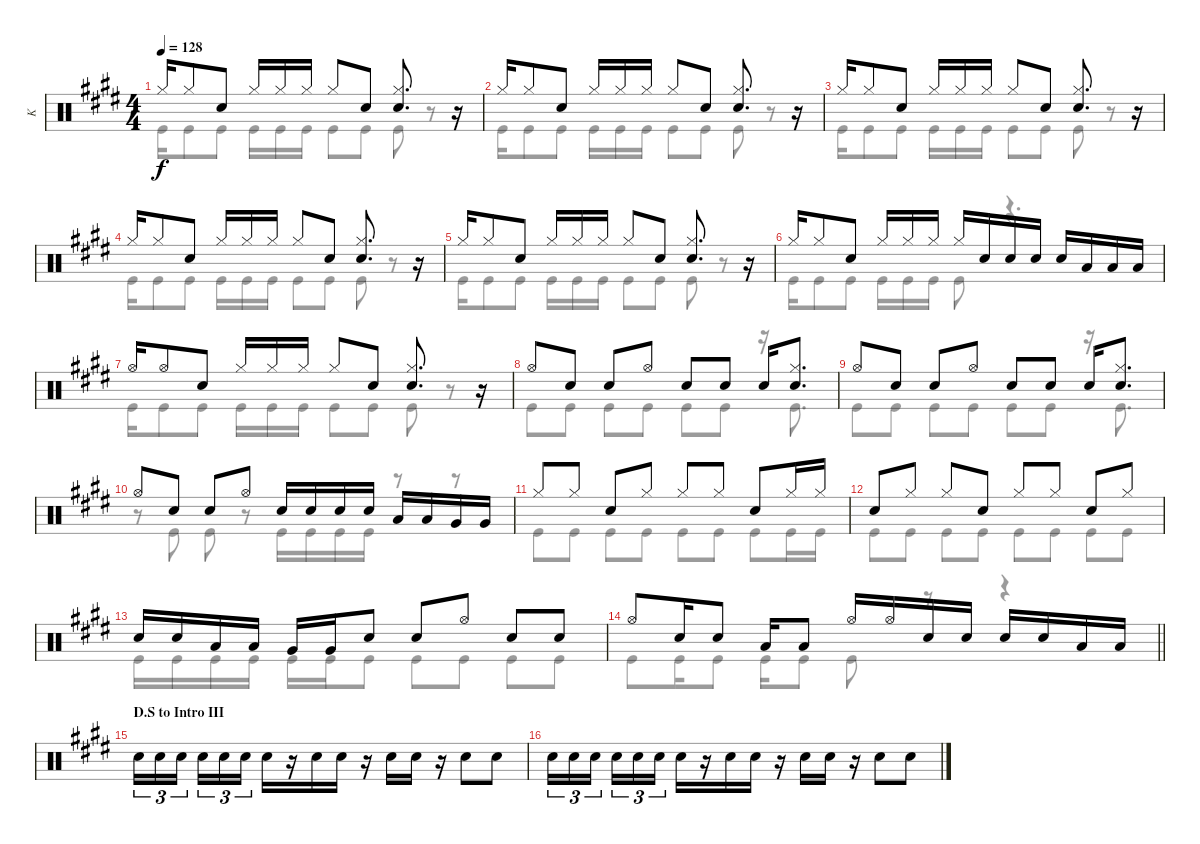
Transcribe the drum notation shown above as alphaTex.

\track ("K" "K") {instrument percussion}
\staff {score}
\articulation defaults
\voice
\ts (4 4)
\tempo 128
\clef neutral
\ks e "Hi-Hat (closed)".16{dy f} "Hi-Hat (closed)".8 "Snare (hit) 2".8 "Hi-Hat (closed)".16 "Hi-Hat (closed)".16 "Hi-Hat (closed)".16 "Hi-Hat (closed)".8 "Snare (hit) 2".8
("Hi-Hat (closed)" "Snare (hit) 2").8{d} r.16 |
"Hi-Hat (closed)".16 "Hi-Hat (closed)".8 "Snare (hit) 2".8 "Hi-Hat (closed)".16 "Hi-Hat (closed)".16 "Hi-Hat (closed)".16 "Hi-Hat (closed)".8 "Snare (hit) 2".8 ("Hi-Hat (closed)" "Snare (hit) 2").8{d} r.16 |
"Hi-Hat (closed)".16 "Hi-Hat (closed)".8 "Snare (hit) 2".8 "Hi-Hat (closed)".16 "Hi-Hat (closed)".16 "Hi-Hat (closed)".16 "Hi-Hat (closed)".8 "Snare (hit) 2".8 ("Hi-Hat (closed)" "Snare (hit) 2").8{d} r.16 |
"Hi-Hat (closed)".16 "Hi-Hat (closed)".8 "Snare (hit) 2".8 "Hi-Hat (closed)".16 "Hi-Hat (closed)".16 "Hi-Hat (closed)".16 "Hi-Hat (closed)".8 "Snare (hit) 2".8 ("Hi-Hat (closed)" "Snare (hit) 2").8{d} r.16 |
"Hi-Hat (closed)".16 "Hi-Hat (closed)".8 "Snare (hit) 2".8 "Hi-Hat (closed)".16 "Hi-Hat (closed)".16 "Hi-Hat (closed)".16 "Hi-Hat (closed)".8 "Snare (hit) 2".8 ("Hi-Hat (closed)" "Snare (hit) 2").8{d} r.16 |
"Hi-Hat (closed)".16 "Hi-Hat (closed)".8 "Snare (hit) 2".8 "Hi-Hat (closed)".16 "Hi-Hat (closed)".16 "Hi-Hat (closed)".16 "Hi-Hat (closed)".16 "Snare (hit) 2".16 "Snare (hit) 2".16 "Snare (hit) 2".16 "Snare (hit) 2".16 "Low Tom (hit)".16 "Low Tom (hit)".16 "Low Tom (hit)".16 |
"Hi-Hat (open)".16 "Hi-Hat (open)".8 "Snare (hit) 2".8 "Hi-Hat (closed)".16 "Hi-Hat (closed)".16 "Hi-Hat (closed)".16 "Hi-Hat (closed)".8 "Snare (hit) 2".8 ("Hi-Hat (closed)" "Snare (hit) 2").8{d} r.16 |
"Hi-Hat (open)".8 "Snare (hit) 2".8 "Snare (hit) 2".8 "Hi-Hat (open)".8 "Snare (hit) 2".8 "Snare (hit) 2".8 "Snare (hit) 2".16 ("Hi-Hat (closed)" "Snare (hit) 2").8{d} |
"Hi-Hat (open)".8 "Snare (hit) 2".8 "Snare (hit) 2".8 "Hi-Hat (open)".8 "Snare (hit) 2".8 "Snare (hit) 2".8 "Snare (hit) 2".16 ("Hi-Hat (closed)" "Snare (hit) 2").8{d} |
"Hi-Hat (open)".8 "Snare (hit) 2".8 "Snare (hit) 2".8 "Hi-Hat (open)".8 "Snare (hit) 2".16 "Snare (hit) 2".16 "Snare (hit) 2".16 "Snare (hit) 2".16 "Low Tom (hit)".16 "Low Tom (hit)".16 "Very Low Tom (hit)".16 "Very Low Tom (hit)".16 |
"Hi-Hat (closed)".8 "Hi-Hat (closed)".8 "Snare (hit) 2".8 "Hi-Hat (closed)".8 "Hi-Hat (closed)".8 "Hi-Hat (closed)".8 "Snare (hit) 2".8 "Hi-Hat (closed)".16 "Hi-Hat (closed)".16 |
"Snare (hit) 2".8 "Hi-Hat (closed)".8 "Hi-Hat (closed)".8 "Snare (hit) 2".8 "Hi-Hat (closed)".8 "Hi-Hat (closed)".8 "Snare (hit) 2".8 "Hi-Hat (closed)".8 |
"Snare (hit) 2".16 "Snare (hit) 2".16 "Low Tom (hit)".16 "Low Tom (hit)".16 "Very Low Tom (hit)".16 "Very Low Tom (hit)".16 "Snare (hit) 2".8 "Snare (hit) 2".8 "Hi-Hat (open)".8 "Snare (hit) 2".8 "Snare (hit) 2".8 |
\barLineRight lightlight "Hi-Hat (open)".8 "Snare (hit) 2".16 "Snare (hit) 2".8 "Low Tom (hit)".16 "Low Tom (hit)".8 "Hi-Hat (open)".16 "Hi-Hat (open)".16 "Snare (hit) 2".16 "Snare (hit) 2".16 "Snare (hit) 2".16 "Snare (hit) 2".16 "Low Tom (hit)".16 "Low Tom (hit)".16
|
\section ("" "D.S to Intro III")
"Snare (hit) 2".16{tu (3 2)} "Snare (hit) 2".16{tu (3 2)} "Snare (hit) 2".16{tu (3 2) beam splitsecondary} "Snare (hit) 2".16{tu (3 2)} "Snare (hit) 2".16{tu (3 2)} "Snare (hit) 2".16{tu (3 2)} "Snare (hit) 2".16 r.16 "Snare (hit) 2".16 "Snare (hit) 2".16 r.16 "Snare (hit) 2".16 "Snare (hit) 2".16 r.16 "Snare (hit) 2".8 "Snare (hit) 2".8 |
"Snare (hit) 2".16{tu (3 2)} "Snare (hit) 2".16{tu (3 2)} "Snare (hit) 2".16{tu (3 2) beam splitsecondary} "Snare (hit) 2".16{tu (3 2)} "Snare (hit) 2".16{tu (3 2)} "Snare (hit) 2".16{tu (3 2)} "Snare (hit) 2".16 r.16 "Snare (hit) 2".16 "Snare (hit) 2".16 r.16 "Snare (hit) 2".16 "Snare (hit) 2".16 r.16 "Snare (hit) 2".8 "Snare (hit) 2".8
\voice
\clef neutral
\ottava regular
\simile none
\ks e "Kick (hit)".16{dy f} "Kick (hit)".8 "Kick (hit)".8 "Kick (hit)".16 "Kick (hit)".16 "Kick (hit)".16 "Kick (hit)".8 "Kick (hit)".8 "Kick (hit)".8
r.8 |
"Kick (hit)".16 "Kick (hit)".8 "Kick (hit)".8 "Kick (hit)".16 "Kick (hit)".16 "Kick (hit)".16 "Kick (hit)".8 "Kick (hit)".8 "Kick (hit)".8 r.8 |
"Kick (hit)".16 "Kick (hit)".8 "Kick (hit)".8 "Kick (hit)".16 "Kick (hit)".16 "Kick (hit)".16 "Kick (hit)".8 "Kick (hit)".8 "Kick (hit)".8 r.8 |
"Kick (hit)".16 "Kick (hit)".8 "Kick (hit)".8 "Kick (hit)".16 "Kick (hit)".16 "Kick (hit)".16 "Kick (hit)".8 "Kick (hit)".8 "Kick (hit)".8 r.8 |
"Kick (hit)".16 "Kick (hit)".8 "Kick (hit)".8 "Kick (hit)".16 "Kick (hit)".16 "Kick (hit)".16 "Kick (hit)".8 "Kick (hit)".8 "Kick (hit)".8 r.8 |
"Kick (hit)".16 "Kick (hit)".8 "Kick (hit)".8 "Kick (hit)".16 "Kick (hit)".16 "Kick (hit)".16 "Kick (hit)".8 r.4{d} |
"Kick (hit)".16 "Kick (hit)".8 "Kick (hit)".8 "Kick (hit)".16 "Kick (hit)".16 "Kick (hit)".16 "Kick (hit)".8 "Kick (hit)".8 "Kick (hit)".8 r.8 |
"Kick (hit)".8 "Kick (hit)".8 "Kick (hit)".8 "Kick (hit)".8 "Kick (hit)".8 "Kick (hit)".8 r.16 "Kick (hit)".8{d} |
"Kick (hit)".8 "Kick (hit)".8 "Kick (hit)".8 "Kick (hit)".8 "Kick (hit)".8 "Kick (hit)".8 r.16 "Kick (hit)".8{d} |
r.8 "Kick (hit)".8 "Kick (hit)".8 r.8 "Kick (hit)".16 "Kick (hit)".16 "Kick (hit)".16 "Kick (hit)".16 r.8 r.8 |
"Kick (hit)".8 "Kick (hit)".8 "Kick (hit)".8 "Kick (hit)".8 "Kick (hit)".8 "Kick (hit)".8 "Kick (hit)".8 "Kick (hit)".16 "Kick (hit)".16 |
"Kick (hit)".8 "Kick (hit)".8 "Kick (hit)".8 "Kick (hit)".8 "Kick (hit)".8 "Kick (hit)".8 "Kick (hit)".8 "Kick (hit)".8 |
"Kick (hit)".16 "Kick (hit)".16 "Kick (hit)".16 "Kick (hit)".16 "Kick (hit)".16 "Kick (hit)".16 "Kick (hit)".8 "Kick (hit)".8 "Kick (hit)".8 "Kick (hit)".8 "Kick (hit)".8 |
\barLineRight lightlight "Kick (hit)".8 "Kick (hit)".16 "Kick (hit)".8 "Kick (hit)".16 "Kick (hit)".8 "Kick (hit)".8
r.8 r.4 |
|
